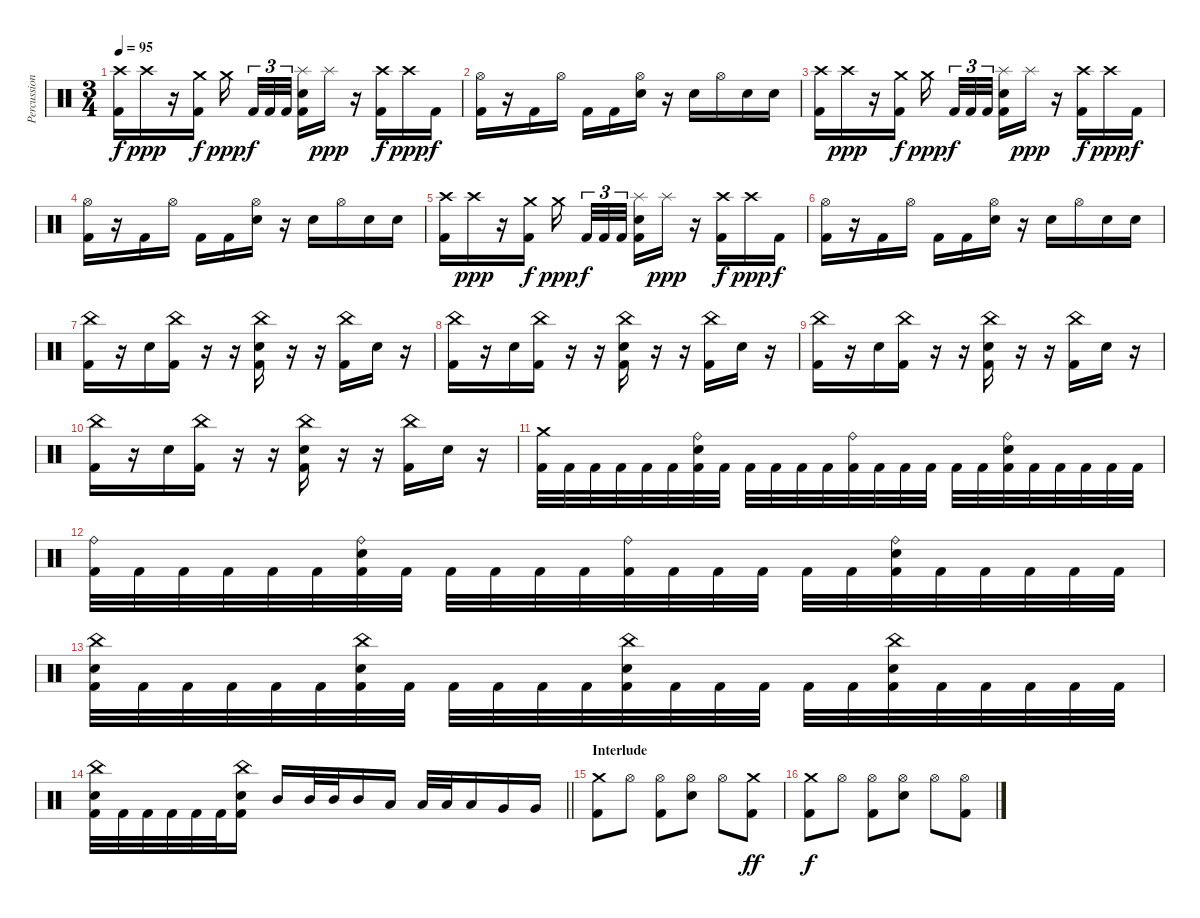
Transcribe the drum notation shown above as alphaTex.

\track ("Percussion" "Percussion") {instrument percussion}
\staff {score}
\articulation defaults
\ts (3 4)
\tempo 95
\clef neutral
\ks c
("Crash high (hit)" "Kick (hit) 2").16{dy f} "Crash high (hit)".16{dy ppp} r.16 ("Crash medium (hit)" "Kick (hit) 2").16{dy f} "Crash medium (hit)".16{dy ppp beam splitsecondary} "Kick (hit) 2".32{tu (3 2) dy f} "Kick (hit) 2".32{tu (3 2)} "Kick (hit) 2".32{tu (3 2) beam splitsecondary} ("Splash (hit)" "Electric Snare (hit)" "Kick (hit) 2").16 "Splash (hit)".16{dy ppp} r.16 ("Crash high (hit)" "Kick (hit) 2").16{dy f} "Crash high (hit)".16{dy ppp} "Kick (hit) 2".16{dy f} |
("Hi-Hat (open)" "Kick (hit) 2").16 r.16 "Kick (hit) 2".16 "Hi-Hat (open)".16 "Kick (hit) 2".16 "Kick (hit) 2".16 ("Hi-Hat (open)" "Electric Snare (hit)").16 r.16 "Electric Snare (hit)".16 "Hi-Hat (open)".16 "Electric Snare (hit)".16 "Electric Snare (hit)".16 |
("Crash high (hit)" "Kick (hit) 2").16 "Crash high (hit)".16{dy ppp} r.16 ("Crash medium (hit)" "Kick (hit) 2").16{dy f} "Crash medium (hit)".16{dy ppp beam splitsecondary} "Kick (hit) 2".32{tu (3 2) dy f} "Kick (hit) 2".32{tu (3 2)} "Kick (hit) 2".32{tu (3 2) beam splitsecondary} ("Splash (hit)" "Electric Snare (hit)" "Kick (hit) 2").16 "Splash (hit)".16{dy ppp} r.16 ("Crash high (hit)" "Kick (hit) 2").16{dy f} "Crash high (hit)".16{dy ppp} "Kick (hit) 2".16{dy f} |
("Hi-Hat (open)" "Kick (hit) 2").16 r.16 "Kick (hit) 2".16 "Hi-Hat (open)".16 "Kick (hit) 2".16 "Kick (hit) 2".16 ("Hi-Hat (open)" "Electric Snare (hit)").16 r.16 "Electric Snare (hit)".16 "Hi-Hat (open)".16 "Electric Snare (hit)".16 "Electric Snare (hit)".16 |
("Crash high (hit)" "Kick (hit) 2").16 "Crash high (hit)".16{dy ppp} r.16 ("Crash medium (hit)" "Kick (hit) 2").16{dy f} "Crash medium (hit)".16{dy ppp beam splitsecondary} "Kick (hit) 2".32{tu (3 2) dy f} "Kick (hit) 2".32{tu (3 2)} "Kick (hit) 2".32{tu (3 2) beam splitsecondary} ("Splash (hit)" "Electric Snare (hit)" "Kick (hit) 2").16 "Splash (hit)".16{dy ppp} r.16 ("Crash high (hit)" "Kick (hit) 2").16{dy f} "Crash high (hit)".16{dy ppp} "Kick (hit) 2".16{dy f} |
("Hi-Hat (open)" "Kick (hit) 2").16 r.16 "Kick (hit) 2".16 "Hi-Hat (open)".16 "Kick (hit) 2".16 "Kick (hit) 2".16 ("Hi-Hat (open)" "Electric Snare (hit)").16 r.16 "Electric Snare (hit)".16 "Hi-Hat (open)".16 "Electric Snare (hit)".16 "Electric Snare (hit)".16 |
("China (hit)" "Kick (hit) 2").16 r.16 "Electric Snare (hit)".16 ("China (hit)" "Kick (hit) 2").16 r.16 r.16 ("China (hit)" "Electric Snare (hit)" "Kick (hit) 2").16 r.16 r.16 ("China (hit)" "Kick (hit) 2").16 "Electric Snare (hit)".16 r.16 |
("China (hit)" "Kick (hit) 2").16 r.16 "Electric Snare (hit)".16 ("China (hit)" "Kick (hit) 2").16 r.16 r.16 ("China (hit)" "Electric Snare (hit)" "Kick (hit) 2").16 r.16 r.16 ("China (hit)" "Kick (hit) 2").16 "Electric Snare (hit)".16 r.16 |
("China (hit)" "Kick (hit) 2").16 r.16 "Electric Snare (hit)".16 ("China (hit)" "Kick (hit) 2").16 r.16 r.16 ("China (hit)" "Electric Snare (hit)" "Kick (hit) 2").16 r.16 r.16 ("China (hit)" "Kick (hit) 2").16 "Electric Snare (hit)".16 r.16 |
("China (hit)" "Kick (hit) 2").16 r.16 "Electric Snare (hit)".16 ("China (hit)" "Kick (hit) 2").16 r.16 r.16 ("China (hit)" "Electric Snare (hit)" "Kick (hit) 2").16 r.16 r.16 ("China (hit)" "Kick (hit) 2").16 "Electric Snare (hit)".16 r.16 |
("Crash medium (hit)" "Kick (hit) 2").32 "Kick (hit) 2".32 "Kick (hit) 2".32 "Kick (hit) 2".32 "Kick (hit) 2".32 "Kick (hit) 2".32 ("Ride (bell)" "Electric Snare (hit)" "Kick (hit) 2").32 "Kick (hit) 2".32 "Kick (hit) 2".32 "Kick (hit) 2".32 "Kick (hit) 2".32 "Kick (hit) 2".32 ("Ride (bell)" "Kick (hit) 2").32 "Kick (hit) 2".32 "Kick (hit) 2".32 "Kick (hit) 2".32 "Kick (hit) 2".32 "Kick (hit) 2".32 ("Ride (bell)" "Electric Snare (hit)" "Kick (hit) 2").32 "Kick (hit) 2".32 "Kick (hit) 2".32 "Kick (hit) 2".32 "Kick (hit) 2".32 "Kick (hit) 2".32 |
("Ride (bell)" "Kick (hit) 2").32 "Kick (hit) 2".32 "Kick (hit) 2".32 "Kick (hit) 2".32 "Kick (hit) 2".32 "Kick (hit) 2".32 ("Ride (bell)" "Electric Snare (hit)" "Kick (hit) 2").32 "Kick (hit) 2".32 "Kick (hit) 2".32 "Kick (hit) 2".32 "Kick (hit) 2".32 "Kick (hit) 2".32 ("Ride (bell)" "Kick (hit) 2").32 "Kick (hit) 2".32 "Kick (hit) 2".32 "Kick (hit) 2".32 "Kick (hit) 2".32 "Kick (hit) 2".32 ("Ride (bell)" "Electric Snare (hit)" "Kick (hit) 2").32 "Kick (hit) 2".32 "Kick (hit) 2".32 "Kick (hit) 2".32 "Kick (hit) 2".32 "Kick (hit) 2".32 |
("China (hit)" "Electric Snare (hit)" "Kick (hit) 2").32 "Kick (hit) 2".32 "Kick (hit) 2".32 "Kick (hit) 2".32 "Kick (hit) 2".32 "Kick (hit) 2".32 ("China (hit)" "Electric Snare (hit)" "Kick (hit) 2").32 "Kick (hit) 2".32 "Kick (hit) 2".32 "Kick (hit) 2".32 "Kick (hit) 2".32 "Kick (hit) 2".32 ("China (hit)" "Electric Snare (hit)" "Kick (hit) 2").32 "Kick (hit) 2".32 "Kick (hit) 2".32 "Kick (hit) 2".32 "Kick (hit) 2".32 "Kick (hit) 2".32 ("China (hit)" "Electric Snare (hit)" "Kick (hit) 2").32 "Kick (hit) 2".32 "Kick (hit) 2".32 "Kick (hit) 2".32 "Kick (hit) 2".32 "Kick (hit) 2".32 |
\barLineRight lightlight
("China (hit)" "Electric Snare (hit)" "Kick (hit) 2").32 "Kick (hit) 2".32 "Kick (hit) 2".32 "Kick (hit) 2".32 "Kick (hit) 2".32 "Kick (hit) 2".32 ("China (hit)" "Electric Snare (hit)" "Kick (hit) 2").16 "Mid Tom (hit)".16 "Mid Tom (hit)".32 "Mid Tom (hit)".32 "Mid Tom (hit)".16 "Low Tom (hit)".16 "Low Tom (hit)".32 "Low Tom (hit)".32 "Low Tom (hit)".16 "Very Low Tom (hit)".16 "Very Low Tom (hit)".16 |
\section ("" "Interlude")
("Crash medium (hit)" "Kick (hit) 2").8 "Hi-Hat (open)".8 ("Hi-Hat (open)" "Kick (hit) 2").8 ("Hi-Hat (open)" "Electric Snare (hit)").8 "Hi-Hat (open)".8 ("Crash medium (hit)" "Kick (hit) 2").8{dy ff} |
("Crash medium (hit)" "Kick (hit) 2").8{dy f} "Hi-Hat (open)".8 ("Hi-Hat (open)" "Kick (hit) 2").8 ("Hi-Hat (open)" "Electric Snare (hit)").8 "Hi-Hat (open)".8 ("Hi-Hat (open)" "Kick (hit) 2").8
